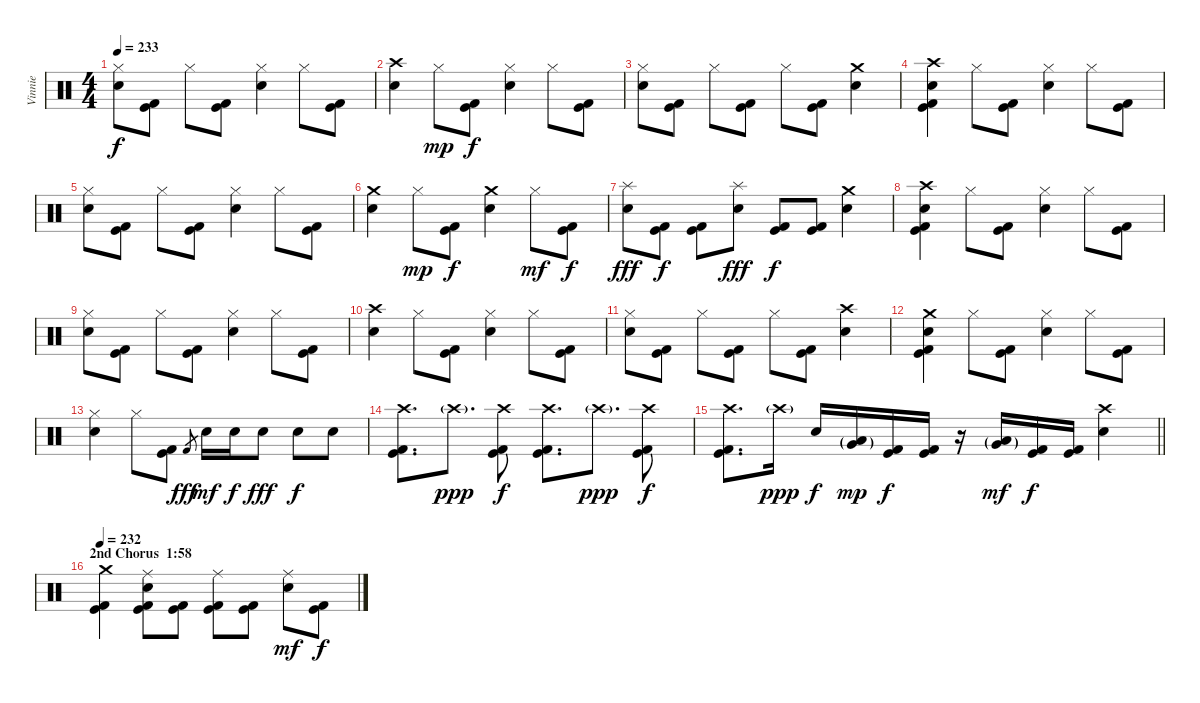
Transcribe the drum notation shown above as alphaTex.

\track ("Vinnie" "Vinnie") {instrument percussion}
\staff {score}
\articulation defaults
\ts (4 4)
\tempo 233
\clef neutral
\ks c
("Hi-Hat (closed)" "Electric Snare (hit)").8{dy f} ("Kick (hit)" "Kick (hit) 2").8 "Hi-Hat (closed)".8 ("Kick (hit)" "Kick (hit) 2").8 ("Hi-Hat (closed)" "Electric Snare (hit)").4 "Hi-Hat (closed)".8 ("Kick (hit)" "Kick (hit) 2").8 |
("Crash high (hit)" "Electric Snare (hit)").4 "Hi-Hat (closed)".8{dy mp} ("Kick (hit)" "Kick (hit) 2").8{dy f} ("Hi-Hat (closed)" "Electric Snare (hit)").4 "Hi-Hat (closed)".8 ("Kick (hit)" "Kick (hit) 2").8 |
("Hi-Hat (closed)" "Electric Snare (hit)").8 ("Kick (hit)" "Kick (hit) 2").8 "Hi-Hat (closed)".8 ("Kick (hit)" "Kick (hit) 2").8 "Hi-Hat (closed)".8 ("Kick (hit)" "Kick (hit) 2").8 ("Crash medium (hit)" "Electric Snare (hit)").4 |
("Crash high (hit)" "Electric Snare (hit)" "Kick (hit)" "Kick (hit) 2").4{bd 60} "Hi-Hat (closed)".8 ("Kick (hit)" "Kick (hit) 2").8 ("Hi-Hat (closed)" "Electric Snare (hit)").4 "Hi-Hat (closed)".8 ("Kick (hit)" "Kick (hit) 2").8 |
("Hi-Hat (closed)" "Electric Snare (hit)").8 ("Kick (hit)" "Kick (hit) 2").8 "Hi-Hat (closed)".8 ("Kick (hit)" "Kick (hit) 2").8 ("Hi-Hat (closed)" "Electric Snare (hit)").4 "Hi-Hat (closed)".8 ("Kick (hit)" "Kick (hit) 2").8 |
("Crash medium (hit)" "Electric Snare (hit)").4 "Hi-Hat (closed)".8{dy mp} ("Kick (hit)" "Kick (hit) 2").8{dy f} ("Crash medium (hit)" "Electric Snare (hit)").4 "Hi-Hat (closed)".8{dy mf} ("Kick (hit)" "Kick (hit) 2").8{dy f} |
("Splash (hit)" "Electric Snare (hit)").8{dy fff} ("Kick (hit)" "Kick (hit) 2").8{dy f} ("Kick (hit)" "Kick (hit) 2").8 ("Splash (hit)" "Electric Snare (hit)").8{dy fff} ("Kick (hit)" "Kick (hit) 2").8{dy f} ("Kick (hit)" "Kick (hit) 2").8 ("Crash medium (hit)" "Electric Snare (hit)").4 |
("Crash high (hit)" "Electric Snare (hit)" "Kick (hit)" "Kick (hit) 2").4{bd 60} "Hi-Hat (closed)".8 ("Kick (hit)" "Kick (hit) 2").8 ("Hi-Hat (closed)" "Electric Snare (hit)").4 "Hi-Hat (closed)".8 ("Kick (hit)" "Kick (hit) 2").8 |
("Hi-Hat (closed)" "Electric Snare (hit)").8 ("Kick (hit)" "Kick (hit) 2").8 "Hi-Hat (closed)".8 ("Kick (hit)" "Kick (hit) 2").8 ("Hi-Hat (closed)" "Electric Snare (hit)").4 "Hi-Hat (closed)".8 ("Kick (hit)" "Kick (hit) 2").8 |
("Crash high (hit)" "Electric Snare (hit)").4 "Hi-Hat (closed)".8 ("Kick (hit)" "Kick (hit) 2").8 ("Hi-Hat (closed)" "Electric Snare (hit)").4 "Hi-Hat (closed)".8 ("Kick (hit)" "Kick (hit) 2").8 |
("Hi-Hat (closed)" "Electric Snare (hit)").8 ("Kick (hit)" "Kick (hit) 2").8 "Hi-Hat (closed)".8 ("Kick (hit)" "Kick (hit) 2").8 "Hi-Hat (closed)".8 ("Kick (hit)" "Kick (hit) 2").8 ("Crash high (hit)" "Electric Snare (hit)").4 |
("Crash medium (hit)" "Electric Snare (hit)" "Kick (hit)" "Kick (hit) 2").4{bd 60} "Hi-Hat (closed)".8 ("Kick (hit)" "Kick (hit) 2").8 ("Hi-Hat (closed)" "Electric Snare (hit)").4 "Hi-Hat (closed)".8 ("Kick (hit)" "Kick (hit) 2").8 |
("Hi-Hat (closed)" "Electric Snare (hit)").4 "Hi-Hat (closed)".8 ("Kick (hit)" "Kick (hit) 2").8 "Kick (hit) 2".8{gr dy fff} "Electric Snare (hit)".16{bd 480 dy mf} "Electric Snare (hit)".16{dy f} "Electric Snare (hit)".8{dy fff} "Electric Snare (hit)".8{dy f} "Electric Snare (hit)".8 |
("Crash high (hit)" "Kick (hit)" "Kick (hit) 2").8{d} "Crash high (hit)"{g}.8{d dy ppp} ("Crash high (hit)" "Kick (hit)" "Kick (hit) 2").8{dy f} ("Crash high (hit)" "Kick (hit)" "Kick (hit) 2").8{d} "Crash high (hit)"{g}.8{d dy ppp} ("Crash high (hit)" "Kick (hit)" "Kick (hit) 2").8{dy f} |
\barLineRight lightlight
("Crash high (hit)" "Kick (hit)" "Kick (hit) 2").8{d} "Crash high (hit)"{g}.16{dy ppp} "Electric Snare (hit)".16{dy f} ("Low Tom (hit)"{g} "Very Low Tom (hit)"{g}).16{dy mp} ("Kick (hit)" "Kick (hit) 2").16{dy f} ("Kick (hit)" "Kick (hit) 2").16 r.16 ("Low Tom (hit)"{g} "Very Low Tom (hit)"{g}).16{dy mf} ("Kick (hit)" "Kick (hit) 2").16{dy f} ("Kick (hit)" "Kick (hit) 2").16 ("Crash high (hit)" "Electric Snare (hit)").4 |
\section ("" "2nd Chorus  1:58")
\tempo 232
("Crash medium (hit)" "Kick (hit)" "Kick (hit) 2").4 ("Ride (middle)" "Electric Snare (hit)" "Kick (hit)" "Kick (hit) 2").8{bd 30} ("Kick (hit)" "Kick (hit) 2").8 ("Ride (middle)" "Kick (hit)" "Kick (hit) 2").8 ("Kick (hit)" "Kick (hit) 2").8 ("Ride (middle)" "Electric Snare (hit)").8{dy mf} ("Kick (hit)" "Kick (hit) 2").8{dy f}
